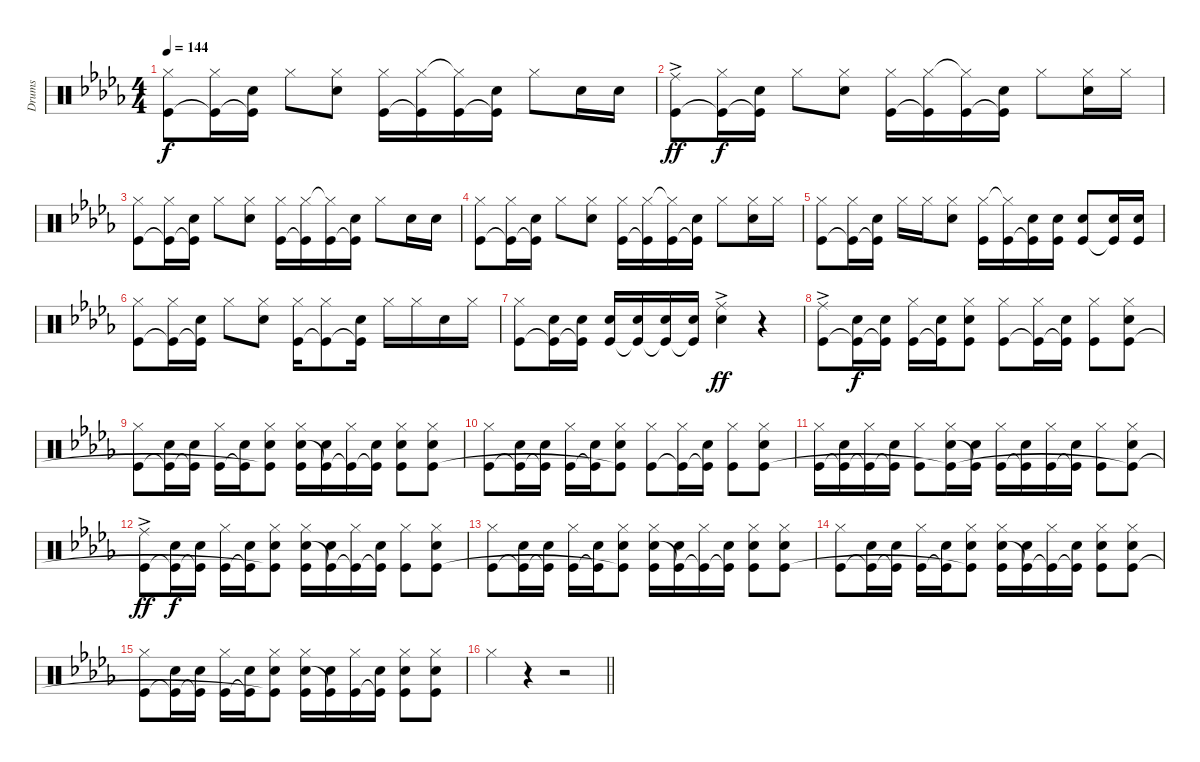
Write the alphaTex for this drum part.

\track ("Drums" "Drums") {instrument percussion}
\staff {score}
\articulation defaults
\ts (4 4)
\tempo 144
\clef neutral
\ks db
("Hi-Hat (closed)" "Kick (hit)").8{dy f} ("Hi-Hat (closed)" "Kick (hit)"{t}).16 ("Snare (hit) 2" "Kick (hit)"{t}).16 "Hi-Hat (closed)".8 ("Hi-Hat (closed)" "Snare (hit) 2").8 ("Hi-Hat (closed)" "Kick (hit)").16 ("Hi-Hat (closed)" "Kick (hit)"{t}).16 ("Hi-Hat (closed)"{t} "Kick (hit)").16 ("Snare (hit) 2" "Kick (hit)"{t}).16 "Hi-Hat (closed)".8 "Snare (hit) 2".16 "Snare (hit) 2".16 |
("Ride (middle)"{ac} "Kick (hit)").8{dy ff} ("Hi-Hat (closed)" "Kick (hit)"{t}).16{dy f} ("Snare (hit) 2" "Kick (hit)"{t}).16 "Hi-Hat (closed)".8 ("Hi-Hat (closed)" "Snare (hit) 2").8 ("Hi-Hat (closed)" "Kick (hit)").16 ("Hi-Hat (closed)" "Kick (hit)"{t}).16 ("Hi-Hat (closed)"{t} "Kick (hit)").16 ("Snare (hit) 2" "Kick (hit)"{t}).16 "Hi-Hat (closed)".8 ("Hi-Hat (closed)" "Snare (hit) 2").16 "Hi-Hat (closed)".16 |
("Hi-Hat (closed)" "Kick (hit)").8 ("Hi-Hat (closed)" "Kick (hit)"{t}).16 ("Snare (hit) 2" "Kick (hit)"{t}).16 "Hi-Hat (closed)".8 ("Hi-Hat (closed)" "Snare (hit) 2").8 ("Hi-Hat (closed)" "Kick (hit)").16 ("Hi-Hat (closed)" "Kick (hit)"{t}).16 ("Hi-Hat (closed)"{t} "Kick (hit)").16 ("Snare (hit) 2" "Kick (hit)"{t}).16 "Hi-Hat (closed)".8 "Snare (hit) 2".16 "Snare (hit) 2".16 |
("Hi-Hat (closed)" "Kick (hit)").8 ("Hi-Hat (closed)" "Kick (hit)"{t}).16 ("Snare (hit) 2" "Kick (hit)"{t}).16 "Hi-Hat (closed)".8 ("Hi-Hat (closed)" "Snare (hit) 2").8 ("Hi-Hat (closed)" "Kick (hit)").16 ("Hi-Hat (closed)" "Kick (hit)"{t}).16 ("Hi-Hat (closed)"{t} "Kick (hit)").16 ("Snare (hit) 2" "Kick (hit)"{t}).16 "Hi-Hat (closed)".8 ("Hi-Hat (closed)" "Snare (hit) 2").16 "Hi-Hat (closed)".16 |
("Hi-Hat (closed)" "Kick (hit)").8 ("Hi-Hat (closed)" "Kick (hit)"{t}).16 ("Snare (hit) 2" "Kick (hit)"{t}).16 "Hi-Hat (closed)".16 "Hi-Hat (closed)".16 ("Hi-Hat (closed)" "Snare (hit) 2").8 ("Hi-Hat (closed)" "Kick (hit)").16 ("Hi-Hat (closed)"{t} "Kick (hit)").16 ("Snare (hit) 2" "Kick (hit)"{t}).16 ("Snare (hit) 2" "Kick (hit)").16 ("Snare (hit) 2" "Kick (hit)").8 ("Snare (hit) 2" "Kick (hit)"{t}).16 ("Snare (hit) 2" "Kick (hit)").16 |
("Hi-Hat (closed)" "Kick (hit)").8 ("Hi-Hat (closed)" "Kick (hit)"{t}).16 ("Snare (hit) 2" "Kick (hit)"{t}).16 "Hi-Hat (closed)".8 ("Hi-Hat (closed)" "Snare (hit) 2").8 ("Hi-Hat (closed)" "Kick (hit)").16 ("Hi-Hat (closed)" "Kick (hit)"{t}).8 ("Snare (hit) 2" "Kick (hit)"{t}).16 "Hi-Hat (closed)".16 "Hi-Hat (closed)".16 "Snare (hit) 2".16 "Hi-Hat (closed)".16 |
("Hi-Hat (closed)" "Kick (hit)").8 ("Snare (hit) 2" "Kick (hit)"{t}).16 ("Snare (hit) 2" "Kick (hit)"{t}).16 ("Snare (hit) 2" "Kick (hit)").16 ("Snare (hit) 2" "Kick (hit)"{t}).16 ("Snare (hit) 2" "Kick (hit)"{t}).16 ("Snare (hit) 2" "Kick (hit)"{t}).16 ("Ride (middle)"{ac} "Snare (hit) 2").4{dy ff} r.4 |
("Ride (middle)"{ac} "Kick (hit)").8 ("Snare (hit) 2" "Kick (hit)"{t}).16{dy f} ("Snare (hit) 2" "Kick (hit)"{t}).16 ("Hi-Hat (closed)" "Kick (hit)").16 ("Snare (hit) 2" "Kick (hit)"{t}).16 ("Hi-Hat (closed)" "Snare (hit) 2" "Kick (hit)").8 ("Hi-Hat (closed)" "Kick (hit)").8 ("Hi-Hat (closed)" "Kick (hit)"{t}).16 ("Snare (hit) 2" "Kick (hit)"{t}).16 ("Hi-Hat (closed)" "Kick (hit)").8 ("Hi-Hat (closed)" "Snare (hit) 2" "Kick (hit)").8 |
("Hi-Hat (closed)" "Kick (hit)").8 ("Snare (hit) 2" "Kick (hit)"{t}).16 ("Snare (hit) 2" "Kick (hit)"{t}).16 ("Hi-Hat (closed)" "Kick (hit)").16 ("Snare (hit) 2" "Kick (hit)"{t}).16 ("Hi-Hat (closed)" "Snare (hit) 2" "Kick (hit)"{t}).8 ("Hi-Hat (closed)" "Snare (hit) 2" "Kick (hit)").16 ("Snare (hit) 2" "Kick (hit)"{t}).16 ("Hi-Hat (closed)" "Kick (hit)"{t}).16 ("Snare (hit) 2" "Kick (hit)"{t}).16 ("Hi-Hat (closed)" "Snare (hit) 2" "Kick (hit)").8 ("Hi-Hat (closed)" "Snare (hit) 2" "Kick (hit)").8 |
("Hi-Hat (closed)" "Kick (hit)").8 ("Snare (hit) 2" "Kick (hit)"{t}).16 ("Snare (hit) 2" "Kick (hit)"{t}).16 ("Hi-Hat (closed)" "Kick (hit)").16 ("Snare (hit) 2" "Kick (hit)"{t}).16 ("Hi-Hat (closed)" "Snare (hit) 2" "Kick (hit)"{t}).8 ("Hi-Hat (closed)" "Kick (hit)").8 ("Hi-Hat (closed)" "Kick (hit)"{t}).16 ("Snare (hit) 2" "Kick (hit)"{t}).16 ("Hi-Hat (closed)" "Kick (hit)").8 ("Hi-Hat (closed)" "Snare (hit) 2" "Kick (hit)").8 |
("Hi-Hat (closed)" "Kick (hit)").16 ("Snare (hit) 2" "Kick (hit)"{t}).16 ("Hi-Hat (closed)" "Kick (hit)"{t}).16 ("Snare (hit) 2" "Kick (hit)"{t}).16 ("Hi-Hat (closed)" "Kick (hit)").8 ("Hi-Hat (closed)" "Snare (hit) 2" "Kick (hit)"{t}).16 ("Snare (hit) 2" "Kick (hit)"{t}).16 ("Hi-Hat (closed)" "Kick (hit)").16 ("Snare (hit) 2" "Kick (hit)"{t}).16 ("Hi-Hat (closed)" "Kick (hit)").16 ("Snare (hit) 2" "Kick (hit)"{t}).16 ("Hi-Hat (closed)" "Kick (hit)").8 ("Hi-Hat (closed)" "Snare (hit) 2" "Kick (hit)"{t}).8 |
("Ride (middle)"{ac} "Kick (hit)").8{dy ff} ("Snare (hit) 2" "Kick (hit)"{t}).16{dy f} ("Snare (hit) 2" "Kick (hit)"{t}).16 ("Hi-Hat (closed)" "Kick (hit)").16 ("Snare (hit) 2" "Kick (hit)"{t}).16 ("Hi-Hat (closed)" "Snare (hit) 2" "Kick (hit)"{t}).8 ("Hi-Hat (closed)" "Snare (hit) 2" "Kick (hit)").16 ("Snare (hit) 2" "Kick (hit)"{t}).16 ("Hi-Hat (closed)" "Kick (hit)"{t}).16 ("Snare (hit) 2" "Kick (hit)"{t}).16 ("Hi-Hat (closed)" "Kick (hit)").8 ("Hi-Hat (closed)" "Snare (hit) 2" "Kick (hit)").8 |
("Hi-Hat (closed)" "Kick (hit)").8 ("Snare (hit) 2" "Kick (hit)"{t}).16 ("Snare (hit) 2" "Kick (hit)"{t}).16 ("Hi-Hat (closed)" "Kick (hit)").16 ("Snare (hit) 2" "Kick (hit)"{t}).16 ("Hi-Hat (closed)" "Snare (hit) 2" "Kick (hit)"{t}).8 ("Hi-Hat (closed)" "Snare (hit) 2" "Kick (hit)").16 ("Snare (hit) 2" "Kick (hit)"{t}).16 ("Hi-Hat (closed)" "Kick (hit)"{t}).16 ("Snare (hit) 2" "Kick (hit)"{t}).16 ("Hi-Hat (closed)" "Snare (hit) 2" "Kick (hit)").8 ("Hi-Hat (closed)" "Snare (hit) 2" "Kick (hit)").8 |
("Hi-Hat (closed)" "Kick (hit)").8 ("Snare (hit) 2" "Kick (hit)"{t}).16 ("Snare (hit) 2" "Kick (hit)"{t}).16 ("Hi-Hat (closed)" "Kick (hit)").16 ("Snare (hit) 2" "Kick (hit)"{t}).16 ("Hi-Hat (closed)" "Snare (hit) 2" "Kick (hit)"{t}).8 ("Hi-Hat (closed)" "Snare (hit) 2" "Kick (hit)").16 ("Snare (hit) 2" "Kick (hit)"{t}).16 ("Hi-Hat (closed)" "Kick (hit)"{t}).16 ("Snare (hit) 2" "Kick (hit)"{t}).16 ("Hi-Hat (closed)" "Snare (hit) 2" "Kick (hit)").8 ("Hi-Hat (closed)" "Snare (hit) 2" "Kick (hit)").8 |
("Hi-Hat (closed)" "Kick (hit)").8 ("Snare (hit) 2" "Kick (hit)"{t}).16 ("Snare (hit) 2" "Kick (hit)"{t}).16 ("Hi-Hat (closed)" "Kick (hit)").16 ("Snare (hit) 2" "Kick (hit)"{t}).16 ("Hi-Hat (closed)" "Snare (hit) 2" "Kick (hit)"{t}).8 ("Hi-Hat (closed)" "Snare (hit) 2" "Kick (hit)").16 ("Snare (hit) 2" "Kick (hit)"{t}).16 ("Hi-Hat (closed)" "Kick (hit)").16 ("Snare (hit) 2" "Kick (hit)"{t}).16 ("Hi-Hat (closed)" "Snare (hit) 2" "Kick (hit)").8 ("Hi-Hat (closed)" "Snare (hit) 2" "Kick (hit)").8 |
\barLineRight lightlight "Hi-Hat (closed)".4
r.4 r.2
